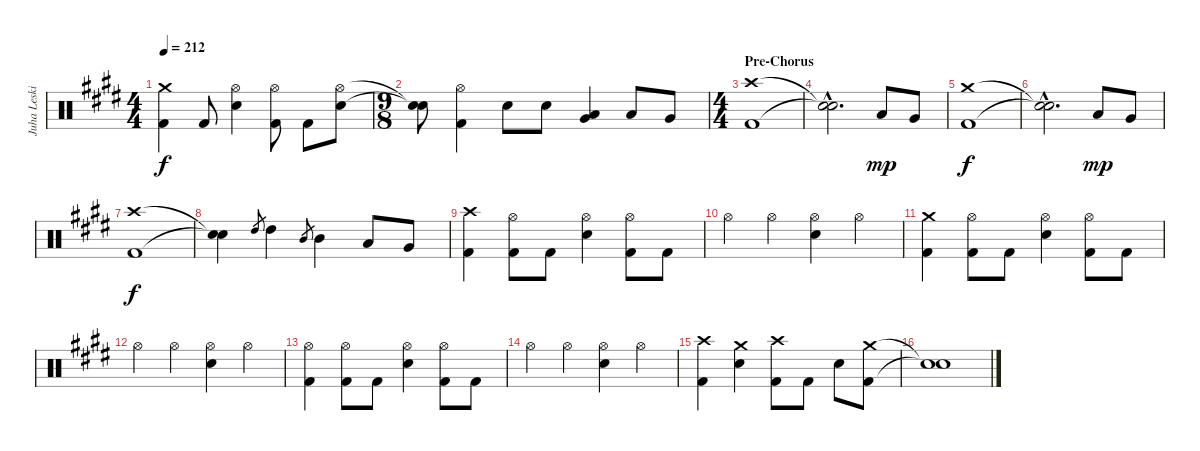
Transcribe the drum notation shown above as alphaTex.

\track ("Juha Leskinen - Drums" "Juha Leski") {instrument percussion}
\staff {score}
\articulation defaults
\ts (4 4)
\tempo 212
\clef neutral
\ks c#minor
("Crash medium (hit)" "Kick (hit) 2").4{dy f} "Kick (hit) 2".8 ("Hi-Hat (open)" "Electric Snare (hit)").4 ("Hi-Hat (open)" "Kick (hit) 2").8 "Kick (hit) 2".8 ("Hi-Hat (open)" "Electric Snare (hit)").8 |
\ts (9 8)
("Snare (hit)"{t} "Snare (hit)"{t}).8 ("Hi-Hat (open)" "Kick (hit) 2").4 "Electric Snare (hit)".8 "Electric Snare (hit)".8 ("Low Tom (hit)" "Very Low Tom (hit)").4 "Low Tom (hit)".8 "Very Low Tom (hit)".8 |
\ts (4 4)
\section ("" "Pre-Chorus")
("Crash high (hit)" "Kick (hit) 2").1 |
("Snare (hit)"{hac t} "Snare (hit)"{hac t}).2{d} "Low Tom (hit)".8{dy mp} "Very Low Tom (hit)".8 |
("Crash medium (hit)" "Kick (hit) 2").1{dy f} |
("Snare (hit)"{hac t} "Snare (hit)"{hac t}).2{d} "Low Tom (hit)".8{dy mp} "Very Low Tom (hit)".8 |
("Crash high (hit)" "Kick (hit) 2").1{dy f} |
("Snare (hit)"{t} "Snare (hit)"{t}).4 "High Tom (hit)".8{gr} "High Tom (hit)".4 "Mid Tom (hit)".8{gr} "Mid Tom (hit)".4 "Low Tom (hit)".8 "Very Low Tom (hit)".8 |
("Crash high (hit)" "Kick (hit) 2").4 ("Hi-Hat (open)" "Kick (hit) 2").8 "Kick (hit) 2".8 ("Hi-Hat (open)" "Electric Snare (hit)").4 ("Hi-Hat (open)" "Kick (hit) 2").8 "Kick (hit) 2".8 |
"Hi-Hat (open)".4 "Hi-Hat (open)".4 ("Hi-Hat (open)" "Electric Snare (hit)").4 "Hi-Hat (open)".4 |
("Crash medium (hit)" "Kick (hit) 2").4 ("Hi-Hat (open)" "Kick (hit) 2").8 "Kick (hit) 2".8 ("Hi-Hat (open)" "Electric Snare (hit)").4 ("Hi-Hat (open)" "Kick (hit) 2").8 "Kick (hit) 2".8 |
"Hi-Hat (open)".4 "Hi-Hat (open)".4 ("Hi-Hat (open)" "Electric Snare (hit)").4 "Hi-Hat (open)".4 |
("Hi-Hat (open)" "Kick (hit) 2").4 ("Hi-Hat (open)" "Kick (hit) 2").8 "Kick (hit) 2".8 ("Hi-Hat (open)" "Electric Snare (hit)").4 ("Hi-Hat (open)" "Kick (hit) 2").8 "Kick (hit) 2".8 |
"Hi-Hat (open)".4 "Hi-Hat (open)".4 ("Hi-Hat (open)" "Electric Snare (hit)").4 "Hi-Hat (open)".4 |
("Crash high (hit)" "Kick (hit) 2").4 ("Crash medium (hit)" "Electric Snare (hit)").4 ("Crash high (hit)" "Kick (hit) 2").8 "Kick (hit) 2".8 "Electric Snare (hit)".8 ("Crash medium (hit)" "Kick (hit) 2").8 |
("Snare (hit)"{t} "Snare (hit)"{t}).1
